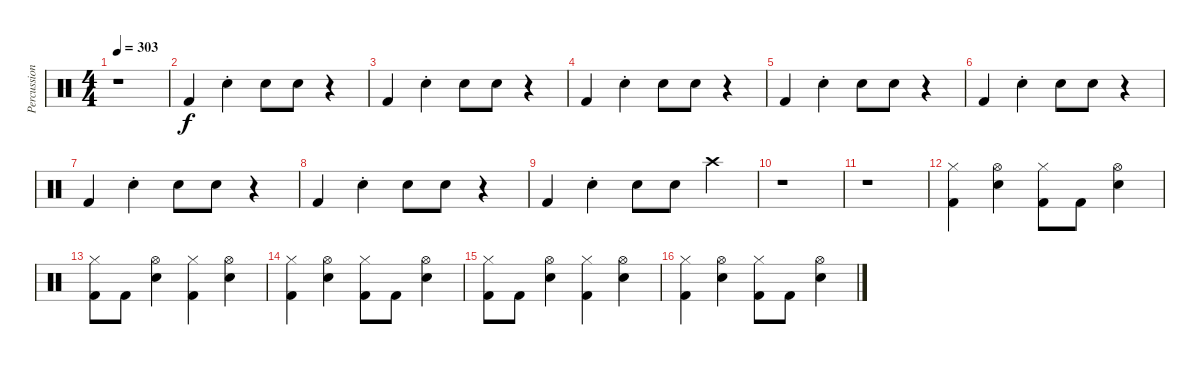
\track ("Percussions" "Percussion") {instrument percussion}
\staff {score}
\articulation defaults
\ts (4 4)
\tempo 303
\clef neutral
\ks c
r.1{dy f} |
"Kick (hit) 2".4 "Electric Snare (hit)"{st}.4 "Electric Snare (hit)".8 "Electric Snare (hit)".8 r.4 |
"Kick (hit) 2".4 "Electric Snare (hit)"{st}.4 "Electric Snare (hit)".8 "Electric Snare (hit)".8 r.4 |
"Kick (hit) 2".4 "Electric Snare (hit)"{st}.4 "Electric Snare (hit)".8 "Electric Snare (hit)".8 r.4 |
"Kick (hit) 2".4 "Electric Snare (hit)"{st}.4 "Electric Snare (hit)".8 "Electric Snare (hit)".8 r.4 |
"Kick (hit) 2".4 "Electric Snare (hit)"{st}.4 "Electric Snare (hit)".8 "Electric Snare (hit)".8 r.4 |
"Kick (hit) 2".4 "Electric Snare (hit)"{st}.4 "Electric Snare (hit)".8 "Electric Snare (hit)".8 r.4 |
"Kick (hit) 2".4 "Electric Snare (hit)"{st}.4 "Electric Snare (hit)".8 "Electric Snare (hit)".8 r.4 |
"Kick (hit) 2".4 "Electric Snare (hit)"{st}.4 "Electric Snare (hit)".8 "Electric Snare (hit)".8 "Crash high (hit)".4 |
r.1 |
r.1 |
("Hi-Hat (closed)" "Kick (hit) 2").4 ("Hi-Hat (open)" "Electric Snare (hit)").4 ("Hi-Hat (closed)" "Kick (hit) 2").8 "Kick (hit) 2".8 ("Hi-Hat (open)" "Electric Snare (hit)").4 |
("Hi-Hat (closed)" "Kick (hit) 2").8 "Kick (hit) 2".8 ("Hi-Hat (open)" "Electric Snare (hit)").4 ("Hi-Hat (closed)" "Kick (hit) 2").4 ("Hi-Hat (open)" "Electric Snare (hit)").4 |
("Hi-Hat (closed)" "Kick (hit) 2").4 ("Hi-Hat (open)" "Electric Snare (hit)").4 ("Hi-Hat (closed)" "Kick (hit) 2").8 "Kick (hit) 2".8 ("Hi-Hat (open)" "Electric Snare (hit)").4 |
("Hi-Hat (closed)" "Kick (hit) 2").8 "Kick (hit) 2".8 ("Hi-Hat (open)" "Electric Snare (hit)").4 ("Hi-Hat (closed)" "Kick (hit) 2").4 ("Hi-Hat (open)" "Electric Snare (hit)").4 |
("Hi-Hat (closed)" "Kick (hit) 2").4 ("Hi-Hat (open)" "Electric Snare (hit)").4 ("Hi-Hat (closed)" "Kick (hit) 2").8 "Kick (hit) 2".8 ("Hi-Hat (open)" "Electric Snare (hit)").4
